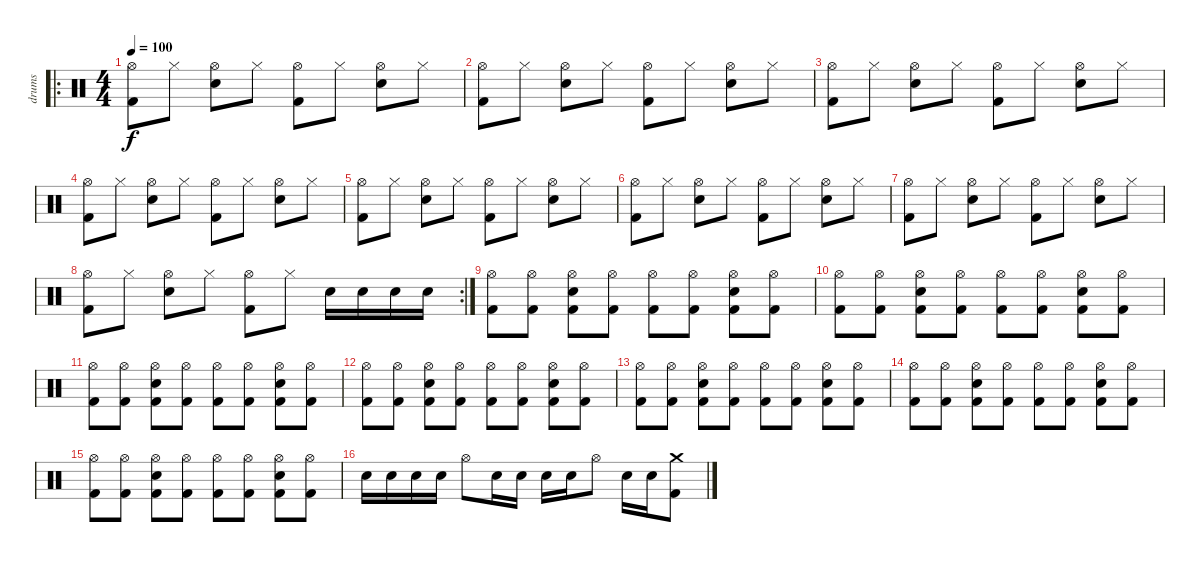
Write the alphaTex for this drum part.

\track ("drums" "drums") {instrument percussion}
\staff {score}
\articulation defaults
\ro
\ts (4 4)
\tempo 100
\clef neutral
\ks c
("Hi-Hat (open)" "Kick (hit) 2").8{dy f} "Hi-Hat (closed)".8 ("Hi-Hat (open)" "Snare (hit) 2").8 "Hi-Hat (closed)".8 ("Hi-Hat (open)" "Kick (hit) 2").8 "Hi-Hat (closed)".8 ("Hi-Hat (open)" "Snare (hit) 2").8 "Hi-Hat (closed)".8 |
("Hi-Hat (open)" "Kick (hit) 2").8 "Hi-Hat (closed)".8 ("Hi-Hat (open)" "Snare (hit) 2").8 "Hi-Hat (closed)".8 ("Hi-Hat (open)" "Kick (hit) 2").8 "Hi-Hat (closed)".8 ("Hi-Hat (open)" "Snare (hit) 2").8 "Hi-Hat (closed)".8 |
("Hi-Hat (open)" "Kick (hit) 2").8 "Hi-Hat (closed)".8 ("Hi-Hat (open)" "Snare (hit) 2").8 "Hi-Hat (closed)".8 ("Hi-Hat (open)" "Kick (hit) 2").8 "Hi-Hat (closed)".8 ("Hi-Hat (open)" "Snare (hit) 2").8 "Hi-Hat (closed)".8 |
("Hi-Hat (open)" "Kick (hit) 2").8 "Hi-Hat (closed)".8 ("Hi-Hat (open)" "Snare (hit) 2").8 "Hi-Hat (closed)".8 ("Hi-Hat (open)" "Kick (hit) 2").8 "Hi-Hat (closed)".8 ("Hi-Hat (open)" "Snare (hit) 2").8 "Hi-Hat (closed)".8 |
("Hi-Hat (open)" "Kick (hit) 2").8 "Hi-Hat (closed)".8 ("Hi-Hat (open)" "Snare (hit) 2").8 "Hi-Hat (closed)".8 ("Hi-Hat (open)" "Kick (hit) 2").8 "Hi-Hat (closed)".8 ("Hi-Hat (open)" "Snare (hit) 2").8 "Hi-Hat (closed)".8 |
("Hi-Hat (open)" "Kick (hit) 2").8 "Hi-Hat (closed)".8 ("Hi-Hat (open)" "Snare (hit) 2").8 "Hi-Hat (closed)".8 ("Hi-Hat (open)" "Kick (hit) 2").8 "Hi-Hat (closed)".8 ("Hi-Hat (open)" "Snare (hit) 2").8 "Hi-Hat (closed)".8 |
("Hi-Hat (open)" "Kick (hit) 2").8 "Hi-Hat (closed)".8 ("Hi-Hat (open)" "Snare (hit) 2").8 "Hi-Hat (closed)".8 ("Hi-Hat (open)" "Kick (hit) 2").8 "Hi-Hat (closed)".8 ("Hi-Hat (open)" "Snare (hit) 2").8 "Hi-Hat (closed)".8 |
\rc 2
("Hi-Hat (open)" "Kick (hit) 2").8 "Hi-Hat (closed)".8 ("Hi-Hat (open)" "Snare (hit) 2").8 "Hi-Hat (closed)".8 ("Hi-Hat (open)" "Kick (hit) 2").8 "Hi-Hat (closed)".8 "Snare (hit) 2".16 "Snare (hit) 2".16 "Snare (hit) 2".16 "Snare (hit) 2".16 |
("Hi-Hat (open)" "Kick (hit) 2").8 ("Hi-Hat (open)" "Kick (hit) 2").8 ("Hi-Hat (open)" "Snare (hit) 2" "Kick (hit) 2").8 ("Hi-Hat (open)" "Kick (hit) 2").8 ("Hi-Hat (open)" "Kick (hit) 2").8 ("Hi-Hat (open)" "Kick (hit) 2").8 ("Hi-Hat (open)" "Snare (hit) 2" "Kick (hit) 2").8 ("Hi-Hat (open)" "Kick (hit) 2").8 |
("Hi-Hat (open)" "Kick (hit) 2").8 ("Hi-Hat (open)" "Kick (hit) 2").8 ("Hi-Hat (open)" "Snare (hit) 2" "Kick (hit) 2").8 ("Hi-Hat (open)" "Kick (hit) 2").8 ("Hi-Hat (open)" "Kick (hit) 2").8 ("Hi-Hat (open)" "Kick (hit) 2").8 ("Hi-Hat (open)" "Snare (hit) 2" "Kick (hit) 2").8 ("Hi-Hat (open)" "Kick (hit) 2").8 |
("Hi-Hat (open)" "Kick (hit) 2").8 ("Hi-Hat (open)" "Kick (hit) 2").8 ("Hi-Hat (open)" "Snare (hit) 2" "Kick (hit) 2").8 ("Hi-Hat (open)" "Kick (hit) 2").8 ("Hi-Hat (open)" "Kick (hit) 2").8 ("Hi-Hat (open)" "Kick (hit) 2").8 ("Hi-Hat (open)" "Snare (hit) 2" "Kick (hit) 2").8 ("Hi-Hat (open)" "Kick (hit) 2").8 |
("Hi-Hat (open)" "Kick (hit) 2").8 ("Hi-Hat (open)" "Kick (hit) 2").8 ("Hi-Hat (open)" "Snare (hit) 2" "Kick (hit) 2").8 ("Hi-Hat (open)" "Kick (hit) 2").8 ("Hi-Hat (open)" "Kick (hit) 2").8 ("Hi-Hat (open)" "Kick (hit) 2").8 ("Hi-Hat (open)" "Snare (hit) 2" "Kick (hit) 2").8 ("Hi-Hat (open)" "Kick (hit) 2").8 |
("Hi-Hat (open)" "Kick (hit) 2").8 ("Hi-Hat (open)" "Kick (hit) 2").8 ("Hi-Hat (open)" "Snare (hit) 2" "Kick (hit) 2").8 ("Hi-Hat (open)" "Kick (hit) 2").8 ("Hi-Hat (open)" "Kick (hit) 2").8 ("Hi-Hat (open)" "Kick (hit) 2").8 ("Hi-Hat (open)" "Snare (hit) 2" "Kick (hit) 2").8 ("Hi-Hat (open)" "Kick (hit) 2").8 |
("Hi-Hat (open)" "Kick (hit) 2").8 ("Hi-Hat (open)" "Kick (hit) 2").8 ("Hi-Hat (open)" "Snare (hit) 2" "Kick (hit) 2").8 ("Hi-Hat (open)" "Kick (hit) 2").8 ("Hi-Hat (open)" "Kick (hit) 2").8 ("Hi-Hat (open)" "Kick (hit) 2").8 ("Hi-Hat (open)" "Snare (hit) 2" "Kick (hit) 2").8 ("Hi-Hat (open)" "Kick (hit) 2").8 |
("Hi-Hat (open)" "Kick (hit) 2").8 ("Hi-Hat (open)" "Kick (hit) 2").8 ("Hi-Hat (open)" "Snare (hit) 2" "Kick (hit) 2").8 ("Hi-Hat (open)" "Kick (hit) 2").8 ("Hi-Hat (open)" "Kick (hit) 2").8 ("Hi-Hat (open)" "Kick (hit) 2").8 ("Hi-Hat (open)" "Snare (hit) 2" "Kick (hit) 2").8 ("Hi-Hat (open)" "Kick (hit) 2").8 |
"Snare (hit) 2".16 "Snare (hit) 2".16 "Snare (hit) 2".16 "Snare (hit) 2".16 "Hi-Hat (open)".8 "Snare (hit) 2".16 "Snare (hit) 2".16 "Snare (hit) 2".16 "Snare (hit) 2".16 "Hi-Hat (open)".8 "Snare (hit) 2".16 "Snare (hit) 2".16 ("Crash medium (hit)" "Kick (hit) 2").8
